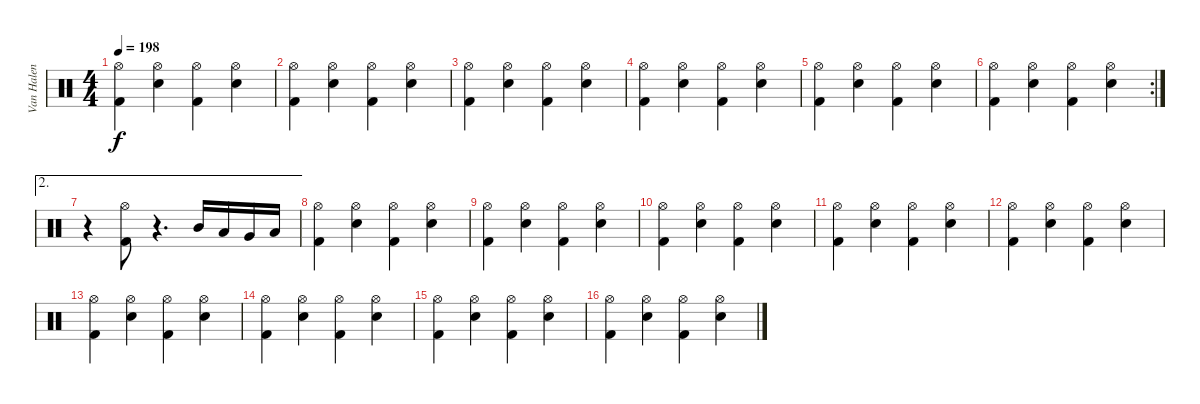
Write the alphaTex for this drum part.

\track ("Van Halen" "Van Halen") {instrument percussion}
\staff {score}
\articulation defaults
\ts (4 4)
\tempo 198
\clef neutral
\ks c
("Kick (hit) 2" "Hi-Hat (open)").4{dy f} ("Snare (hit) 2" "Hi-Hat (open)").4 ("Kick (hit) 2" "Hi-Hat (open)").4 ("Snare (hit) 2" "Hi-Hat (open)").4 |
("Kick (hit) 2" "Hi-Hat (open)").4 ("Snare (hit) 2" "Hi-Hat (open)").4 ("Kick (hit) 2" "Hi-Hat (open)").4 ("Snare (hit) 2" "Hi-Hat (open)").4 |
("Kick (hit) 2" "Hi-Hat (open)").4 ("Snare (hit) 2" "Hi-Hat (open)").4 ("Kick (hit) 2" "Hi-Hat (open)").4 ("Snare (hit) 2" "Hi-Hat (open)").4 |
("Kick (hit) 2" "Hi-Hat (open)").4 ("Snare (hit) 2" "Hi-Hat (open)").4 ("Kick (hit) 2" "Hi-Hat (open)").4 ("Snare (hit) 2" "Hi-Hat (open)").4 |
("Kick (hit) 2" "Hi-Hat (open)").4 ("Snare (hit) 2" "Hi-Hat (open)").4 ("Kick (hit) 2" "Hi-Hat (open)").4 ("Snare (hit) 2" "Hi-Hat (open)").4 |
\rc 2
("Kick (hit) 2" "Hi-Hat (open)").4 ("Snare (hit) 2" "Hi-Hat (open)").4 ("Kick (hit) 2" "Hi-Hat (open)").4 ("Snare (hit) 2" "Hi-Hat (open)").4 |
\ae 2
r.4 ("Kick (hit) 2" "Hi-Hat (open)").8 r.4{d} "Mid Tom (hit)".16 "Low Tom (hit)".16 "Very Low Tom (hit)".16 "Low Floor Tom (hit)".16 |
("Kick (hit) 2" "Hi-Hat (open)").4 ("Snare (hit) 2" "Hi-Hat (open)").4 ("Kick (hit) 2" "Hi-Hat (open)").4 ("Snare (hit) 2" "Hi-Hat (open)").4 |
("Kick (hit) 2" "Hi-Hat (open)").4 ("Snare (hit) 2" "Hi-Hat (open)").4 ("Kick (hit) 2" "Hi-Hat (open)").4 ("Snare (hit) 2" "Hi-Hat (open)").4 |
("Kick (hit) 2" "Hi-Hat (open)").4 ("Snare (hit) 2" "Hi-Hat (open)").4 ("Kick (hit) 2" "Hi-Hat (open)").4 ("Snare (hit) 2" "Hi-Hat (open)").4 |
("Kick (hit) 2" "Hi-Hat (open)").4 ("Snare (hit) 2" "Hi-Hat (open)").4 ("Kick (hit) 2" "Hi-Hat (open)").4 ("Snare (hit) 2" "Hi-Hat (open)").4 |
("Kick (hit) 2" "Hi-Hat (open)").4 ("Snare (hit) 2" "Hi-Hat (open)").4 ("Kick (hit) 2" "Hi-Hat (open)").4 ("Snare (hit) 2" "Hi-Hat (open)").4 |
("Kick (hit) 2" "Hi-Hat (open)").4 ("Snare (hit) 2" "Hi-Hat (open)").4 ("Kick (hit) 2" "Hi-Hat (open)").4 ("Snare (hit) 2" "Hi-Hat (open)").4 |
("Kick (hit) 2" "Hi-Hat (open)").4 ("Snare (hit) 2" "Hi-Hat (open)").4 ("Kick (hit) 2" "Hi-Hat (open)").4 ("Snare (hit) 2" "Hi-Hat (open)").4 |
("Kick (hit) 2" "Hi-Hat (open)").4 ("Snare (hit) 2" "Hi-Hat (open)").4 ("Kick (hit) 2" "Hi-Hat (open)").4 ("Snare (hit) 2" "Hi-Hat (open)").4 |
("Kick (hit) 2" "Hi-Hat (open)").4 ("Snare (hit) 2" "Hi-Hat (open)").4 ("Kick (hit) 2" "Hi-Hat (open)").4 ("Snare (hit) 2" "Hi-Hat (open)").4
